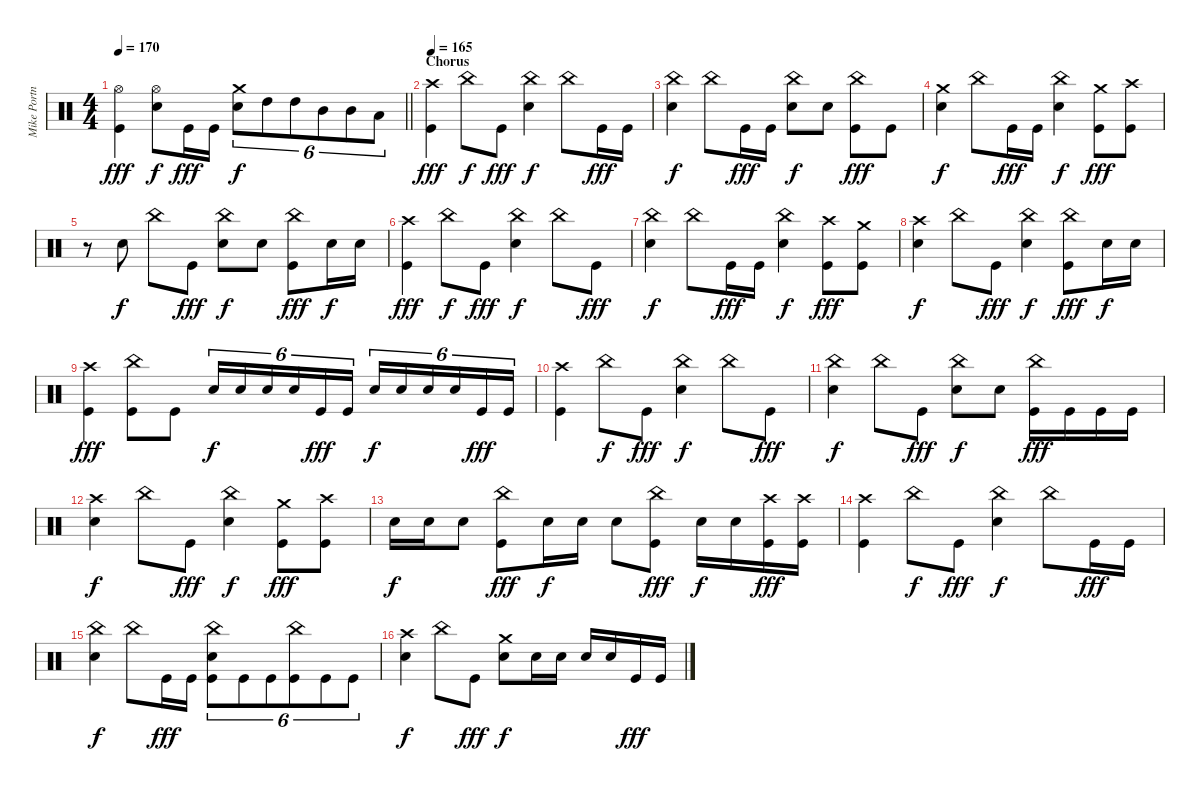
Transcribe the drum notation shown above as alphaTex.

\track ("Mike Portnoy" "Mike Portn") {instrument percussion}
\staff {score}
\articulation defaults
\ts (4 4)
\tempo 170
\clef neutral
\barLineRight lightlight
\ks c
("Hi-Hat (open)" "Kick (hit)").4{dy fff} ("Hi-Hat (open)" "Electric Snare (hit)").8{dy f} "Kick (hit)".16{dy fff} "Kick (hit)".16 ("Crash medium (hit)" "Electric Snare (hit)").8{tu (6 4) dy f} "High Tom (hit)".8{tu (6 4)} "High Tom (hit)".8{tu (6 4)} "Mid Tom (hit)".8{tu (6 4)} "Mid Tom (hit)".8{tu (6 4)} "Low Tom (hit)".8{tu (6 4)} |
\section ("" "Chorus")
\tempo 165
("Crash high (hit)" "Kick (hit)").4{dy fff} "China (hit)".8{dy f} "Kick (hit)".8{dy fff} ("China (hit)" "Electric Snare (hit)").4{dy f} "China (hit)".8 "Kick (hit)".16{dy fff} "Kick (hit)".16 |
("China (hit)" "Electric Snare (hit)").4{dy f} "China (hit)".8 "Kick (hit)".16{dy fff} "Kick (hit)".16 ("China (hit)" "Electric Snare (hit)").8{dy f} "Electric Snare (hit)".8 ("China (hit)" "Kick (hit)").8{dy fff} "Kick (hit)".8 |
("Crash medium (hit)" "Electric Snare (hit)").4{dy f} "China (hit)".8 "Kick (hit)".16{dy fff} "Kick (hit)".16 ("China (hit)" "Electric Snare (hit)").4{dy f} ("Crash medium (hit)" "Kick (hit)").8{dy fff} ("Crash high (hit)" "Kick (hit)").8 |
r.8 "Electric Snare (hit)".8{dy f} "China (hit)".8 "Kick (hit)".8{dy fff} ("China (hit)" "Electric Snare (hit)").8{dy f} "Electric Snare (hit)".8 ("China (hit)" "Kick (hit)").8{dy fff} "Electric Snare (hit)".16{dy f} "Electric Snare (hit)".16 |
("Crash high (hit)" "Kick (hit)").4{dy fff} "China (hit)".8{dy f} "Kick (hit)".8{dy fff} ("China (hit)" "Electric Snare (hit)").4{dy f} "China (hit)".8 "Kick (hit)".8{dy fff} |
("China (hit)" "Electric Snare (hit)").4{dy f} "China (hit)".8 "Kick (hit)".16{dy fff} "Kick (hit)".16 ("China (hit)" "Electric Snare (hit)").4{dy f} ("Crash high (hit)" "Kick (hit)").8{dy fff} ("Crash medium (hit)" "Kick (hit)").8 |
("Crash high (hit)" "Electric Snare (hit)").4{dy f} "China (hit)".8 "Kick (hit)".8{dy fff} ("China (hit)" "Electric Snare (hit)").4{dy f} ("China (hit)" "Kick (hit)").8{dy fff} "Electric Snare (hit)".16{dy f} "Electric Snare (hit)".16 |
("Crash high (hit)" "Kick (hit)").4{dy fff} ("China (hit)" "Kick (hit)").8 "Kick (hit)".8 "Electric Snare (hit)".16{tu (6 4) dy f} "Electric Snare (hit)".16{tu (6 4)} "Electric Snare (hit)".16{tu (6 4)} "Electric Snare (hit)".16{tu (6 4)} "Kick (hit)".16{tu (6 4) dy fff} "Kick (hit)".16{tu (6 4)} "Electric Snare (hit)".16{tu (6 4) dy f} "Electric Snare (hit)".16{tu (6 4)} "Electric Snare (hit)".16{tu (6 4)} "Electric Snare (hit)".16{tu (6 4)} "Kick (hit)".16{tu (6 4) dy fff} "Kick (hit)".16{tu (6 4)} |
("Crash high (hit)" "Kick (hit)").4 "China (hit)".8{dy f} "Kick (hit)".8{dy fff} ("China (hit)" "Electric Snare (hit)").4{dy f} "China (hit)".8 "Kick (hit)".8{dy fff} |
("China (hit)" "Electric Snare (hit)").4{dy f} "China (hit)".8 "Kick (hit)".8{dy fff} ("China (hit)" "Electric Snare (hit)").8{dy f} "Electric Snare (hit)".8 ("China (hit)" "Kick (hit)").16{dy fff} "Kick (hit)".16 "Kick (hit)".16 "Kick (hit)".16 |
("Crash high (hit)" "Electric Snare (hit)").4{dy f} "China (hit)".8 "Kick (hit)".8{dy fff} ("China (hit)" "Electric Snare (hit)").4{dy f} ("Crash medium (hit)" "Kick (hit)").8{dy fff} ("Crash high (hit)" "Kick (hit)").8 |
"Electric Snare (hit)".16{dy f} "Electric Snare (hit)".16 "Electric Snare (hit)".8 ("China (hit)" "Kick (hit)").8{dy fff} "Electric Snare (hit)".16{dy f} "Electric Snare (hit)".16 "Electric Snare (hit)".8 ("China (hit)" "Kick (hit)").8{dy fff} "Electric Snare (hit)".16{dy f} "Electric Snare (hit)".16 ("Crash high (hit)" "Kick (hit)").16{dy fff} ("Crash high (hit)" "Kick (hit)").16 |
("Crash high (hit)" "Kick (hit)").4 "China (hit)".8{dy f} "Kick (hit)".8{dy fff} ("China (hit)" "Electric Snare (hit)").4{dy f} "China (hit)".8 "Kick (hit)".16{dy fff} "Kick (hit)".16 |
("China (hit)" "Electric Snare (hit)").4{dy f} "China (hit)".8 "Kick (hit)".16{dy fff} "Kick (hit)".16 ("China (hit)" "Electric Snare (hit)" "Kick (hit)").8{tu (6 4)} "Kick (hit)".8{tu (6 4)} "Kick (hit)".8{tu (6 4)} ("China (hit)" "Kick (hit)").8{tu (6 4)} "Kick (hit)".8{tu (6 4)} "Kick (hit)".8{tu (6 4)} |
("Crash high (hit)" "Electric Snare (hit)").4{dy f} "China (hit)".8 "Kick (hit)".8{dy fff} ("Crash medium (hit)" "Electric Snare (hit)").8{dy f} "Electric Snare (hit)".16 "Electric Snare (hit)".16 "Electric Snare (hit)".16 "Electric Snare (hit)".16 "Kick (hit)".16{dy fff} "Kick (hit)".16
